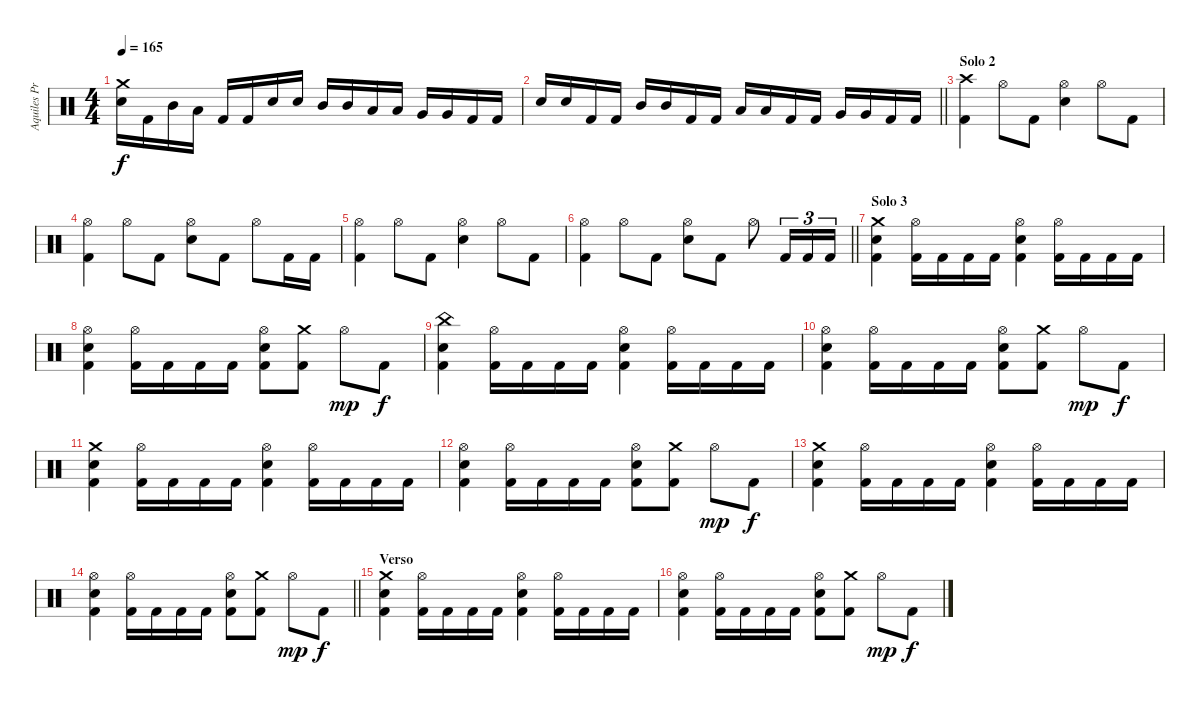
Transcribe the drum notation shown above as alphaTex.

\track ("Aquiles Priester" "Aquiles Pr") {instrument percussion}
\staff {score}
\articulation defaults
\ts (4 4)
\tempo 165
\clef neutral
\ks c
("Crash medium (hit)" "Electric Snare (hit)").16{dy f} "Kick (hit) 2".16 "Mid Tom (hit)".16 "Low Tom (hit)".16 "Kick (hit) 2".16 "Kick (hit) 2".16 "Electric Snare (hit)".16 "Electric Snare (hit)".16 "Mid Tom (hit)".16 "Mid Tom (hit)".16 "Low Tom (hit)".16 "Low Tom (hit)".16 "Very Low Tom (hit)".16 "Very Low Tom (hit)".16 "Kick (hit) 2".16 "Kick (hit) 2".16 |
\barLineRight lightlight "Electric Snare (hit)".16 "Electric Snare (hit)".16 "Kick (hit) 2".16 "Kick (hit) 2".16 "Mid Tom (hit)".16 "Mid Tom (hit)".16 "Kick (hit) 2".16 "Kick (hit) 2".16 "Low Tom (hit)".16 "Low Tom (hit)".16 "Kick (hit) 2".16 "Kick (hit) 2".16 "Very Low Tom (hit)".16 "Very Low Tom (hit)".16 "Kick (hit) 2".16 "Kick (hit) 2".16
|
\section ("" "Solo 2")
("Crash high (hit)" "Kick (hit) 2").4 "Hi-Hat (open)".8 "Kick (hit) 2".8 ("Hi-Hat (open)" "Electric Snare (hit)").4 "Hi-Hat (open)".8 "Kick (hit) 2".8 |
("Hi-Hat (open)" "Kick (hit) 2").4 "Hi-Hat (open)".8 "Kick (hit) 2".8 ("Hi-Hat (open)" "Electric Snare (hit)").8 "Kick (hit) 2".8 "Hi-Hat (open)".8 "Kick (hit) 2".16 "Kick (hit) 2".16 |
("Hi-Hat (open)" "Kick (hit) 2").4 "Hi-Hat (open)".8 "Kick (hit) 2".8 ("Hi-Hat (open)" "Electric Snare (hit)").4 "Hi-Hat (open)".8 "Kick (hit) 2".8 |
\barLineRight lightlight
("Hi-Hat (open)" "Kick (hit) 2").4 "Hi-Hat (open)".8 "Kick (hit) 2".8 ("Hi-Hat (open)" "Electric Snare (hit)").8 "Kick (hit) 2".8 "Hi-Hat (open)".8 "Kick (hit) 2".16{tu (3 2)} "Kick (hit) 2".16{tu (3 2)} "Kick (hit) 2".16{tu (3 2)} |
\section ("" "Solo 3")
("Crash medium (hit)" "Electric Snare (hit)" "Kick (hit) 2").4 ("Hi-Hat (open)" "Kick (hit) 2").16 "Kick (hit) 2".16 "Kick (hit) 2".16 "Kick (hit) 2".16 ("Hi-Hat (open)" "Electric Snare (hit)" "Kick (hit) 2").4 ("Hi-Hat (open)" "Kick (hit) 2").16 "Kick (hit) 2".16 "Kick (hit) 2".16 "Kick (hit) 2".16 |
("Hi-Hat (open)" "Electric Snare (hit)" "Kick (hit) 2").4 ("Hi-Hat (open)" "Kick (hit) 2").16 "Kick (hit) 2".16 "Kick (hit) 2".16 "Kick (hit) 2".16 ("Hi-Hat (open)" "Electric Snare (hit)" "Kick (hit) 2").8 ("Crash medium (hit)" "Kick (hit) 2").8 "Hi-Hat (open)".8{dy mp} "Kick (hit) 2".8{dy f} |
("China (hit)" "Electric Snare (hit)" "Kick (hit) 2").4 ("Hi-Hat (open)" "Kick (hit) 2").16 "Kick (hit) 2".16 "Kick (hit) 2".16 "Kick (hit) 2".16 ("Hi-Hat (open)" "Electric Snare (hit)" "Kick (hit) 2").4 ("Hi-Hat (open)" "Kick (hit) 2").16 "Kick (hit) 2".16 "Kick (hit) 2".16 "Kick (hit) 2".16 |
("Hi-Hat (open)" "Electric Snare (hit)" "Kick (hit) 2").4 ("Hi-Hat (open)" "Kick (hit) 2").16 "Kick (hit) 2".16 "Kick (hit) 2".16 "Kick (hit) 2".16 ("Hi-Hat (open)" "Electric Snare (hit)" "Kick (hit) 2").8 ("Crash medium (hit)" "Kick (hit) 2").8 "Hi-Hat (open)".8{dy mp} "Kick (hit) 2".8{dy f} |
("Crash medium (hit)" "Electric Snare (hit)" "Kick (hit) 2").4 ("Hi-Hat (open)" "Kick (hit) 2").16 "Kick (hit) 2".16 "Kick (hit) 2".16 "Kick (hit) 2".16 ("Hi-Hat (open)" "Electric Snare (hit)" "Kick (hit) 2").4 ("Hi-Hat (open)" "Kick (hit) 2").16 "Kick (hit) 2".16 "Kick (hit) 2".16 "Kick (hit) 2".16 |
("Hi-Hat (open)" "Electric Snare (hit)" "Kick (hit) 2").4 ("Hi-Hat (open)" "Kick (hit) 2").16 "Kick (hit) 2".16 "Kick (hit) 2".16 "Kick (hit) 2".16 ("Hi-Hat (open)" "Electric Snare (hit)" "Kick (hit) 2").8 ("Crash medium (hit)" "Kick (hit) 2").8 "Hi-Hat (open)".8{dy mp} "Kick (hit) 2".8{dy f} |
("Crash medium (hit)" "Electric Snare (hit)" "Kick (hit) 2").4 ("Hi-Hat (open)" "Kick (hit) 2").16 "Kick (hit) 2".16 "Kick (hit) 2".16 "Kick (hit) 2".16 ("Hi-Hat (open)" "Electric Snare (hit)" "Kick (hit) 2").4 ("Hi-Hat (open)" "Kick (hit) 2").16 "Kick (hit) 2".16 "Kick (hit) 2".16 "Kick (hit) 2".16 |
\barLineRight lightlight
("Hi-Hat (open)" "Electric Snare (hit)" "Kick (hit) 2").4 ("Hi-Hat (open)" "Kick (hit) 2").16 "Kick (hit) 2".16 "Kick (hit) 2".16 "Kick (hit) 2".16 ("Hi-Hat (open)" "Electric Snare (hit)" "Kick (hit) 2").8 ("Crash medium (hit)" "Kick (hit) 2").8 "Hi-Hat (open)".8{dy mp} "Kick (hit) 2".8{dy f} |
\section ("" "Verso")
("Crash medium (hit)" "Electric Snare (hit)" "Kick (hit) 2").4 ("Hi-Hat (open)" "Kick (hit) 2").16 "Kick (hit) 2".16 "Kick (hit) 2".16 "Kick (hit) 2".16 ("Hi-Hat (open)" "Electric Snare (hit)" "Kick (hit) 2").4 ("Hi-Hat (open)" "Kick (hit) 2").16 "Kick (hit) 2".16 "Kick (hit) 2".16 "Kick (hit) 2".16 |
("Hi-Hat (open)" "Electric Snare (hit)" "Kick (hit) 2").4 ("Hi-Hat (open)" "Kick (hit) 2").16 "Kick (hit) 2".16 "Kick (hit) 2".16 "Kick (hit) 2".16 ("Hi-Hat (open)" "Electric Snare (hit)" "Kick (hit) 2").8 ("Crash medium (hit)" "Kick (hit) 2").8 "Hi-Hat (open)".8{dy mp} "Kick (hit) 2".8{dy f}
